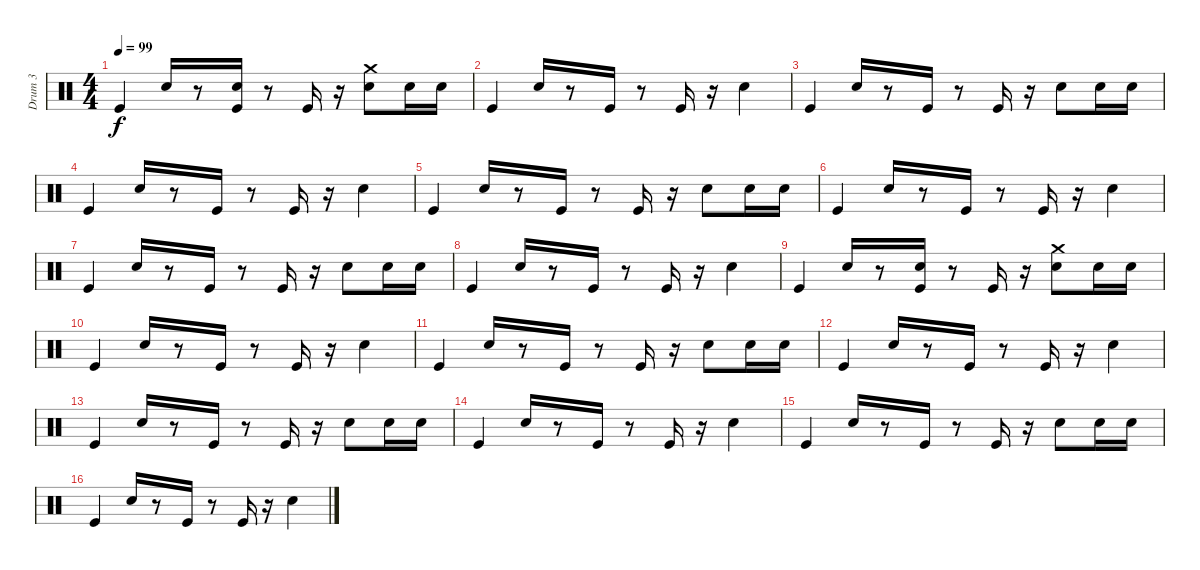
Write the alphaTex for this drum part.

\track ("Drum 3" "Drum 3") {instrument percussion}
\staff {score}
\articulation defaults
\ts (4 4)
\tempo 99
\clef neutral
\ks c "Kick (hit)".4{dy f} "Snare (hit) 2".16
r.8 ("Snare (hit) 2" "Kick (hit)").16 r.8 "Kick (hit)".16 r.16 ("Crash medium (hit)" "Snare (hit) 2").8 "Snare (hit) 2".16 "Snare (hit) 2".16 |
"Kick (hit)".4 "Snare (hit) 2".16 r.8 "Kick (hit)".16 r.8 "Kick (hit)".16 r.16 "Snare (hit) 2".4 |
"Kick (hit)".4 "Snare (hit) 2".16 r.8 "Kick (hit)".16 r.8 "Kick (hit)".16 r.16 "Snare (hit) 2".8 "Snare (hit) 2".16 "Snare (hit) 2".16 |
"Kick (hit)".4 "Snare (hit) 2".16 r.8 "Kick (hit)".16 r.8 "Kick (hit)".16 r.16 "Snare (hit) 2".4 |
"Kick (hit)".4 "Snare (hit) 2".16 r.8 "Kick (hit)".16 r.8 "Kick (hit)".16 r.16 "Snare (hit) 2".8 "Snare (hit) 2".16 "Snare (hit) 2".16 |
"Kick (hit)".4 "Snare (hit) 2".16 r.8 "Kick (hit)".16 r.8 "Kick (hit)".16 r.16 "Snare (hit) 2".4 |
"Kick (hit)".4 "Snare (hit) 2".16 r.8 "Kick (hit)".16 r.8 "Kick (hit)".16 r.16 "Snare (hit) 2".8 "Snare (hit) 2".16 "Snare (hit) 2".16 |
"Kick (hit)".4 "Snare (hit) 2".16 r.8 "Kick (hit)".16 r.8 "Kick (hit)".16 r.16 "Snare (hit) 2".4 |
"Kick (hit)".4 "Snare (hit) 2".16 r.8 ("Snare (hit) 2" "Kick (hit)").16 r.8 "Kick (hit)".16 r.16 ("Crash medium (hit)" "Snare (hit) 2").8 "Snare (hit) 2".16 "Snare (hit) 2".16 |
"Kick (hit)".4 "Snare (hit) 2".16{volume 15} r.8 "Kick (hit)".16 r.8 "Kick (hit)".16 r.16 "Snare (hit) 2".4 |
"Kick (hit)".4 "Snare (hit) 2".16 r.8 "Kick (hit)".16 r.8 "Kick (hit)".16 r.16 "Snare (hit) 2".8 "Snare (hit) 2".16 "Snare (hit) 2".16 |
"Kick (hit)".4 "Snare (hit) 2".16 r.8 "Kick (hit)".16 r.8 "Kick (hit)".16 r.16 "Snare (hit) 2".4 |
"Kick (hit)".4 "Snare (hit) 2".16 r.8 "Kick (hit)".16 r.8 "Kick (hit)".16 r.16 "Snare (hit) 2".8 "Snare (hit) 2".16 "Snare (hit) 2".16 |
"Kick (hit)".4 "Snare (hit) 2".16 r.8 "Kick (hit)".16 r.8 "Kick (hit)".16 r.16 "Snare (hit) 2".4 |
"Kick (hit)".4 "Snare (hit) 2".16 r.8 "Kick (hit)".16 r.8 "Kick (hit)".16 r.16 "Snare (hit) 2".8 "Snare (hit) 2".16 "Snare (hit) 2".16 |
"Kick (hit)".4 "Snare (hit) 2".16 r.8 "Kick (hit)".16 r.8 "Kick (hit)".16 r.16 "Snare (hit) 2".4
